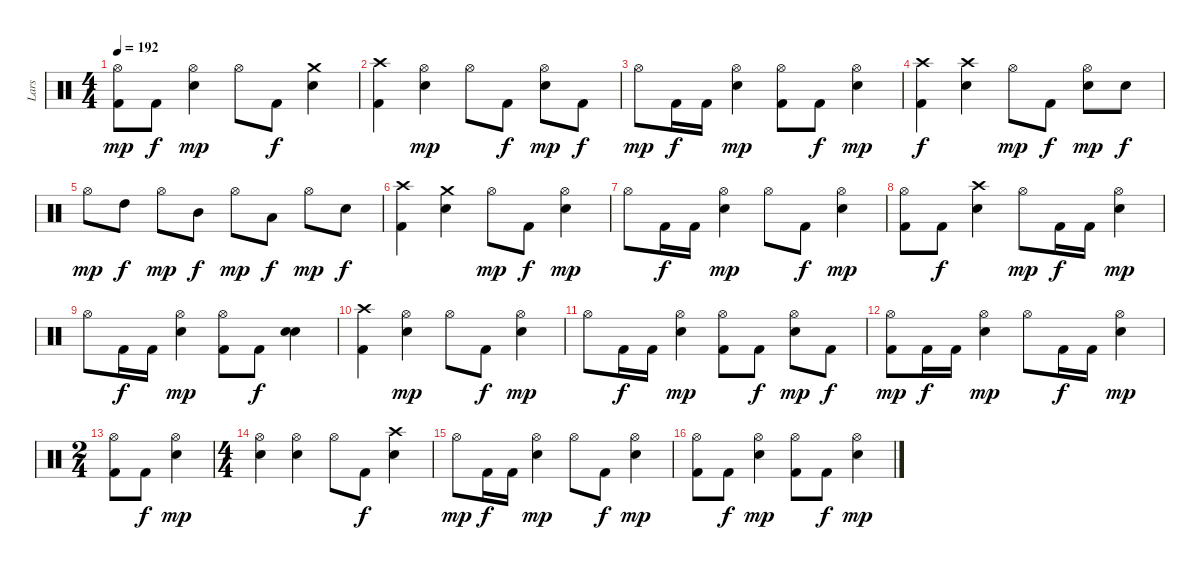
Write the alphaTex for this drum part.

\track ("Lars" "Lars") {instrument percussion}
\staff {score}
\articulation defaults
\ts (4 4)
\tempo 192
\clef neutral
\ks c
("Hi-Hat (open)" "Kick (hit) 2").8{dy mp} "Kick (hit) 2".8{dy f} ("Hi-Hat (open)" "Snare (hit) 2").4{dy mp} "Hi-Hat (open)".8 "Kick (hit) 2".8{dy f} ("Crash medium (hit)" "Snare (hit) 2").4 |
("Crash high (hit)" "Kick (hit) 2").4 ("Hi-Hat (open)" "Snare (hit) 2").4{dy mp} "Hi-Hat (open)".8 "Kick (hit) 2".8{dy f} ("Hi-Hat (open)" "Snare (hit) 2").8{dy mp} "Kick (hit) 2".8{dy f} |
"Hi-Hat (open)".8{dy mp} "Kick (hit) 2".16{dy f} "Kick (hit) 2".16 ("Hi-Hat (open)" "Snare (hit) 2").4{dy mp} ("Hi-Hat (open)" "Kick (hit) 2").8 "Kick (hit) 2".8{dy f} ("Hi-Hat (open)" "Snare (hit) 2").4{dy mp} |
("Crash high (hit)" "Kick (hit) 2").4{dy f} ("Crash high (hit)" "Snare (hit) 2").4 "Hi-Hat (open)".8{dy mp} "Kick (hit) 2".8{dy f} ("Hi-Hat (open)" "Snare (hit) 2").8{dy mp} "Snare (hit) 2".8{dy f} |
"Hi-Hat (open)".8{dy mp} "High Tom (hit)".8{dy f} "Hi-Hat (open)".8{dy mp} "Mid Tom (hit)".8{dy f} "Hi-Hat (open)".8{dy mp} "Low Tom (hit)".8{dy f} "Hi-Hat (open)".8{dy mp} "Snare (hit) 2".8{dy f} |
("Crash high (hit)" "Kick (hit) 2").4 ("Crash medium (hit)" "Snare (hit) 2").4 "Hi-Hat (open)".8{dy mp} "Kick (hit) 2".8{dy f} ("Hi-Hat (open)" "Snare (hit) 2").4{dy mp} |
"Hi-Hat (open)".8 "Kick (hit) 2".16{dy f} "Kick (hit) 2".16 ("Hi-Hat (open)" "Snare (hit) 2").4{dy mp} "Hi-Hat (open)".8 "Kick (hit) 2".8{dy f} ("Hi-Hat (open)" "Snare (hit) 2").4{dy mp} |
("Hi-Hat (open)" "Kick (hit) 2").8 "Kick (hit) 2".8{dy f} ("Crash high (hit)" "Snare (hit) 2").4 "Hi-Hat (open)".8{dy mp} "Kick (hit) 2".16{dy f} "Kick (hit) 2".16 ("Hi-Hat (open)" "Snare (hit) 2").4{dy mp} |
"Hi-Hat (open)".8 "Kick (hit) 2".16{dy f} "Kick (hit) 2".16 ("Hi-Hat (open)" "Snare (hit) 2").4{dy mp} ("Hi-Hat (open)" "Kick (hit) 2").8 "Kick (hit) 2".8{dy f} ("Snare (hit) 2" "Snare (hit) 2").4 |
("Crash high (hit)" "Kick (hit) 2").4 ("Hi-Hat (open)" "Snare (hit) 2").4{dy mp} "Hi-Hat (open)".8 "Kick (hit) 2".8{dy f} ("Hi-Hat (open)" "Snare (hit) 2").4{dy mp} |
"Hi-Hat (open)".8 "Kick (hit) 2".16{dy f} "Kick (hit) 2".16 ("Hi-Hat (open)" "Snare (hit) 2").4{dy mp} ("Hi-Hat (open)" "Kick (hit) 2").8 "Kick (hit) 2".8{dy f} ("Hi-Hat (open)" "Snare (hit) 2").8{dy mp} "Kick (hit) 2".8{dy f} |
("Hi-Hat (open)" "Kick (hit) 2").8{dy mp} "Kick (hit) 2".16{dy f} "Kick (hit) 2".16 ("Hi-Hat (open)" "Snare (hit) 2").4{dy mp} "Hi-Hat (open)".8 "Kick (hit) 2".16{dy f} "Kick (hit) 2".16 ("Hi-Hat (open)" "Snare (hit) 2").4{dy mp} |
\ts (2 4)
("Hi-Hat (open)" "Kick (hit) 2").8 "Kick (hit) 2".8{dy f} ("Hi-Hat (open)" "Snare (hit) 2").4{dy mp} |
\ts (4 4)
("Hi-Hat (open)" "Snare (hit) 2").4 ("Hi-Hat (open)" "Snare (hit) 2").4 "Hi-Hat (open)".8 "Kick (hit) 2".8{dy f} ("Crash high (hit)" "Snare (hit) 2").4 |
"Hi-Hat (open)".8{dy mp} "Kick (hit) 2".16{dy f} "Kick (hit) 2".16 ("Hi-Hat (open)" "Snare (hit) 2").4{dy mp} "Hi-Hat (open)".8 "Kick (hit) 2".8{dy f} ("Hi-Hat (open)" "Snare (hit) 2").4{dy mp} |
("Hi-Hat (open)" "Kick (hit) 2").8 "Kick (hit) 2".8{dy f} ("Hi-Hat (open)" "Snare (hit) 2").4{dy mp} ("Hi-Hat (open)" "Kick (hit) 2").8 "Kick (hit) 2".8{dy f} ("Hi-Hat (open)" "Snare (hit) 2").4{dy mp}
